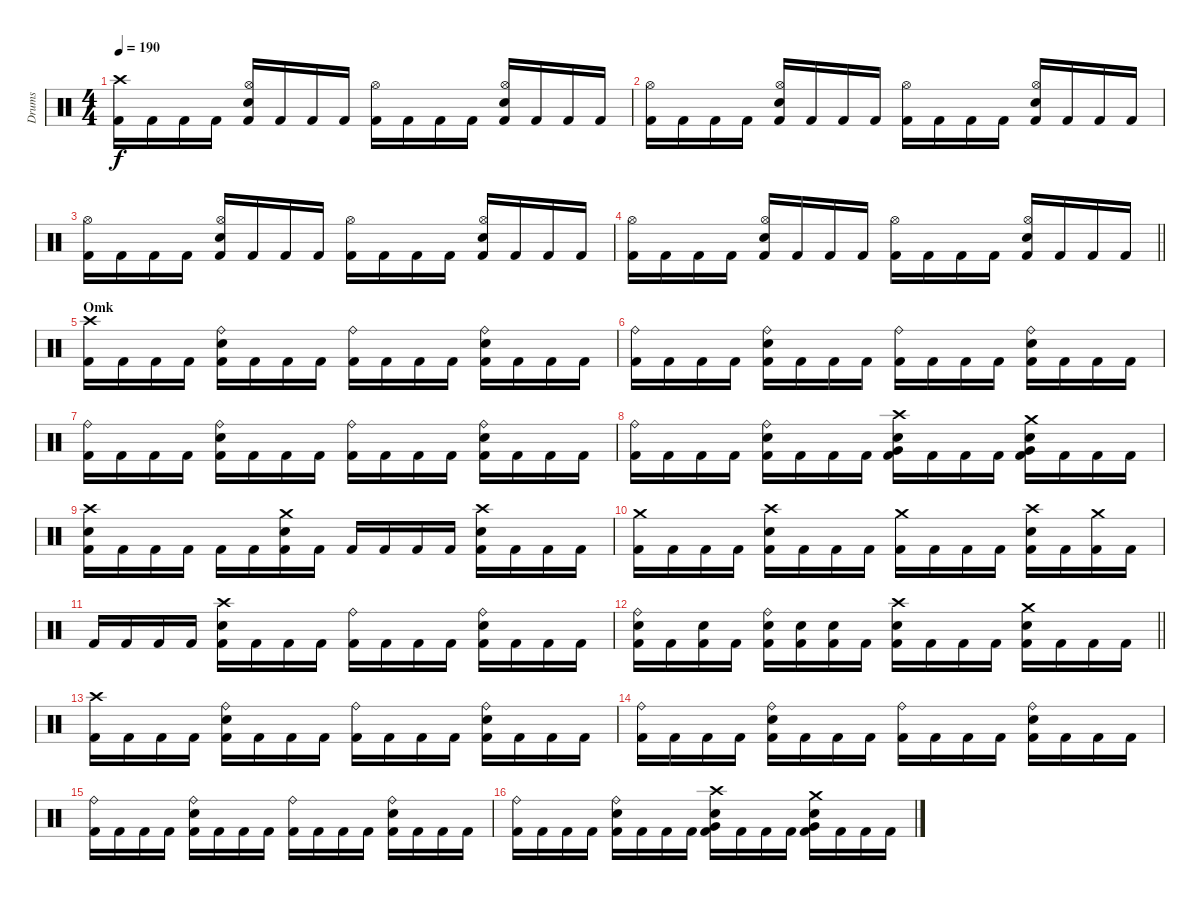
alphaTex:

\track ("Drums" "Drums") {instrument percussion}
\staff {score}
\articulation defaults
\ts (4 4)
\tempo 190
\clef neutral
\ks c
("Crash high (hit)" "Kick (hit) 2").16{dy f} "Kick (hit) 2".16 "Kick (hit) 2".16 "Kick (hit) 2".16 ("Hi-Hat (open)" "Snare (hit) 2" "Kick (hit) 2").16 "Kick (hit) 2".16 "Kick (hit) 2".16 "Kick (hit) 2".16 ("Hi-Hat (open)" "Kick (hit) 2").16 "Kick (hit) 2".16 "Kick (hit) 2".16 "Kick (hit) 2".16 ("Hi-Hat (open)" "Snare (hit) 2" "Kick (hit) 2").16 "Kick (hit) 2".16 "Kick (hit) 2".16 "Kick (hit) 2".16 |
("Hi-Hat (open)" "Kick (hit) 2").16 "Kick (hit) 2".16 "Kick (hit) 2".16 "Kick (hit) 2".16 ("Hi-Hat (open)" "Snare (hit) 2" "Kick (hit) 2").16 "Kick (hit) 2".16 "Kick (hit) 2".16 "Kick (hit) 2".16 ("Hi-Hat (open)" "Kick (hit) 2").16 "Kick (hit) 2".16 "Kick (hit) 2".16 "Kick (hit) 2".16 ("Hi-Hat (open)" "Snare (hit) 2" "Kick (hit) 2").16 "Kick (hit) 2".16 "Kick (hit) 2".16 "Kick (hit) 2".16 |
("Hi-Hat (open)" "Kick (hit) 2").16 "Kick (hit) 2".16 "Kick (hit) 2".16 "Kick (hit) 2".16 ("Hi-Hat (open)" "Snare (hit) 2" "Kick (hit) 2").16 "Kick (hit) 2".16 "Kick (hit) 2".16 "Kick (hit) 2".16 ("Hi-Hat (open)" "Kick (hit) 2").16 "Kick (hit) 2".16 "Kick (hit) 2".16 "Kick (hit) 2".16 ("Hi-Hat (open)" "Snare (hit) 2" "Kick (hit) 2").16 "Kick (hit) 2".16 "Kick (hit) 2".16 "Kick (hit) 2".16 |
\barLineRight lightlight
("Hi-Hat (open)" "Kick (hit) 2").16 "Kick (hit) 2".16 "Kick (hit) 2".16 "Kick (hit) 2".16 ("Hi-Hat (open)" "Snare (hit) 2" "Kick (hit) 2").16 "Kick (hit) 2".16 "Kick (hit) 2".16 "Kick (hit) 2".16 ("Hi-Hat (open)" "Kick (hit) 2").16 "Kick (hit) 2".16 "Kick (hit) 2".16 "Kick (hit) 2".16 ("Hi-Hat (open)" "Snare (hit) 2" "Kick (hit) 2").16 "Kick (hit) 2".16 "Kick (hit) 2".16 "Kick (hit) 2".16 |
\section ("" "Omk")
("Crash high (hit)" "Kick (hit) 2").16 "Kick (hit) 2".16 "Kick (hit) 2".16 "Kick (hit) 2".16 ("Ride (bell)" "Snare (hit) 2" "Kick (hit) 2").16 "Kick (hit) 2".16 "Kick (hit) 2".16 "Kick (hit) 2".16 ("Ride (bell)" "Kick (hit) 2").16 "Kick (hit) 2".16 "Kick (hit) 2".16 "Kick (hit) 2".16 ("Ride (bell)" "Snare (hit) 2" "Kick (hit) 2").16 "Kick (hit) 2".16 "Kick (hit) 2".16 "Kick (hit) 2".16 |
("Ride (bell)" "Kick (hit) 2").16 "Kick (hit) 2".16 "Kick (hit) 2".16 "Kick (hit) 2".16 ("Ride (bell)" "Snare (hit) 2" "Kick (hit) 2").16 "Kick (hit) 2".16 "Kick (hit) 2".16 "Kick (hit) 2".16 ("Ride (bell)" "Kick (hit) 2").16 "Kick (hit) 2".16 "Kick (hit) 2".16 "Kick (hit) 2".16 ("Ride (bell)" "Snare (hit) 2" "Kick (hit) 2").16 "Kick (hit) 2".16 "Kick (hit) 2".16 "Kick (hit) 2".16 |
("Ride (bell)" "Kick (hit) 2").16 "Kick (hit) 2".16 "Kick (hit) 2".16 "Kick (hit) 2".16 ("Ride (bell)" "Snare (hit) 2" "Kick (hit) 2").16 "Kick (hit) 2".16 "Kick (hit) 2".16 "Kick (hit) 2".16 ("Ride (bell)" "Kick (hit) 2").16 "Kick (hit) 2".16 "Kick (hit) 2".16 "Kick (hit) 2".16 ("Ride (bell)" "Snare (hit) 2" "Kick (hit) 2").16 "Kick (hit) 2".16 "Kick (hit) 2".16 "Kick (hit) 2".16 |
("Ride (bell)" "Kick (hit) 2").16 "Kick (hit) 2".16 "Kick (hit) 2".16 "Kick (hit) 2".16 ("Ride (bell)" "Snare (hit) 2" "Kick (hit) 2").16 "Kick (hit) 2".16 "Kick (hit) 2".16 "Kick (hit) 2".16 ("Crash high (hit)" "Very Low Tom (hit)" "Snare (hit) 2" "Kick (hit) 2").16 "Kick (hit) 2".16 "Kick (hit) 2".16 "Kick (hit) 2".16 ("Crash medium (hit)" "Very Low Tom (hit)" "Snare (hit) 2" "Kick (hit) 2").16 "Kick (hit) 2".16 "Kick (hit) 2".16 "Kick (hit) 2".16 |
("Crash high (hit)" "Snare (hit) 2" "Kick (hit) 2").16 "Kick (hit) 2".16 "Kick (hit) 2".16 "Kick (hit) 2".16 "Kick (hit) 2".16 "Kick (hit) 2".16 ("Crash medium (hit)" "Snare (hit) 2" "Kick (hit) 2").16 "Kick (hit) 2".16 "Kick (hit) 2".16 "Kick (hit) 2".16 "Kick (hit) 2".16 "Kick (hit) 2".16 ("Crash high (hit)" "Snare (hit) 2" "Kick (hit) 2").16 "Kick (hit) 2".16 "Kick (hit) 2".16 "Kick (hit) 2".16 |
("Crash medium (hit)" "Kick (hit) 2").16 "Kick (hit) 2".16 "Kick (hit) 2".16 "Kick (hit) 2".16 ("Crash high (hit)" "Snare (hit) 2" "Kick (hit) 2").16 "Kick (hit) 2".16 "Kick (hit) 2".16 "Kick (hit) 2".16 ("Crash medium (hit)" "Kick (hit) 2").16 "Kick (hit) 2".16 "Kick (hit) 2".16 "Kick (hit) 2".16 ("Crash high (hit)" "Snare (hit) 2" "Kick (hit) 2").16 "Kick (hit) 2".16 ("Crash medium (hit)" "Kick (hit) 2").16 "Kick (hit) 2".16 |
"Kick (hit) 2".16 "Kick (hit) 2".16 "Kick (hit) 2".16 "Kick (hit) 2".16 ("Crash high (hit)" "Snare (hit) 2" "Kick (hit) 2").16 "Kick (hit) 2".16 "Kick (hit) 2".16 "Kick (hit) 2".16 ("Ride (bell)" "Kick (hit) 2").16 "Kick (hit) 2".16 "Kick (hit) 2".16 "Kick (hit) 2".16 ("Ride (bell)" "Snare (hit) 2" "Kick (hit) 2").16 "Kick (hit) 2".16 "Kick (hit) 2".16 "Kick (hit) 2".16 |
\barLineRight lightlight
("Ride (bell)" "Snare (hit) 2" "Kick (hit) 2").16 "Kick (hit) 2".16 ("Snare (hit) 2" "Kick (hit) 2").16 "Kick (hit) 2".16 ("Ride (bell)" "Snare (hit) 2" "Kick (hit) 2").16 ("Snare (hit) 2" "Kick (hit) 2").16 ("Snare (hit) 2" "Kick (hit) 2").16 "Kick (hit) 2".16 ("Crash high (hit)" "Snare (hit) 2" "Kick (hit) 2").16 "Kick (hit) 2".16 "Kick (hit) 2".16 "Kick (hit) 2".16 ("Crash medium (hit)" "Snare (hit) 2" "Kick (hit) 2").16 "Kick (hit) 2".16 "Kick (hit) 2".16 "Kick (hit) 2".16 |
("Crash high (hit)" "Kick (hit) 2").16 "Kick (hit) 2".16 "Kick (hit) 2".16 "Kick (hit) 2".16 ("Ride (bell)" "Snare (hit) 2" "Kick (hit) 2").16 "Kick (hit) 2".16 "Kick (hit) 2".16 "Kick (hit) 2".16 ("Ride (bell)" "Kick (hit) 2").16 "Kick (hit) 2".16 "Kick (hit) 2".16 "Kick (hit) 2".16 ("Ride (bell)" "Snare (hit) 2" "Kick (hit) 2").16 "Kick (hit) 2".16 "Kick (hit) 2".16 "Kick (hit) 2".16 |
("Ride (bell)" "Kick (hit) 2").16 "Kick (hit) 2".16 "Kick (hit) 2".16 "Kick (hit) 2".16 ("Ride (bell)" "Snare (hit) 2" "Kick (hit) 2").16 "Kick (hit) 2".16 "Kick (hit) 2".16 "Kick (hit) 2".16 ("Ride (bell)" "Kick (hit) 2").16 "Kick (hit) 2".16 "Kick (hit) 2".16 "Kick (hit) 2".16 ("Ride (bell)" "Snare (hit) 2" "Kick (hit) 2").16 "Kick (hit) 2".16 "Kick (hit) 2".16 "Kick (hit) 2".16 |
("Ride (bell)" "Kick (hit) 2").16 "Kick (hit) 2".16 "Kick (hit) 2".16 "Kick (hit) 2".16 ("Ride (bell)" "Snare (hit) 2" "Kick (hit) 2").16 "Kick (hit) 2".16 "Kick (hit) 2".16 "Kick (hit) 2".16 ("Ride (bell)" "Kick (hit) 2").16 "Kick (hit) 2".16 "Kick (hit) 2".16 "Kick (hit) 2".16 ("Ride (bell)" "Snare (hit) 2" "Kick (hit) 2").16 "Kick (hit) 2".16 "Kick (hit) 2".16 "Kick (hit) 2".16 |
("Ride (bell)" "Kick (hit) 2").16 "Kick (hit) 2".16 "Kick (hit) 2".16 "Kick (hit) 2".16 ("Ride (bell)" "Snare (hit) 2" "Kick (hit) 2").16 "Kick (hit) 2".16 "Kick (hit) 2".16 "Kick (hit) 2".16 ("Crash high (hit)" "Very Low Tom (hit)" "Snare (hit) 2" "Kick (hit) 2").16 "Kick (hit) 2".16 "Kick (hit) 2".16 "Kick (hit) 2".16 ("Crash medium (hit)" "Very Low Tom (hit)" "Snare (hit) 2" "Kick (hit) 2").16 "Kick (hit) 2".16 "Kick (hit) 2".16 "Kick (hit) 2".16
